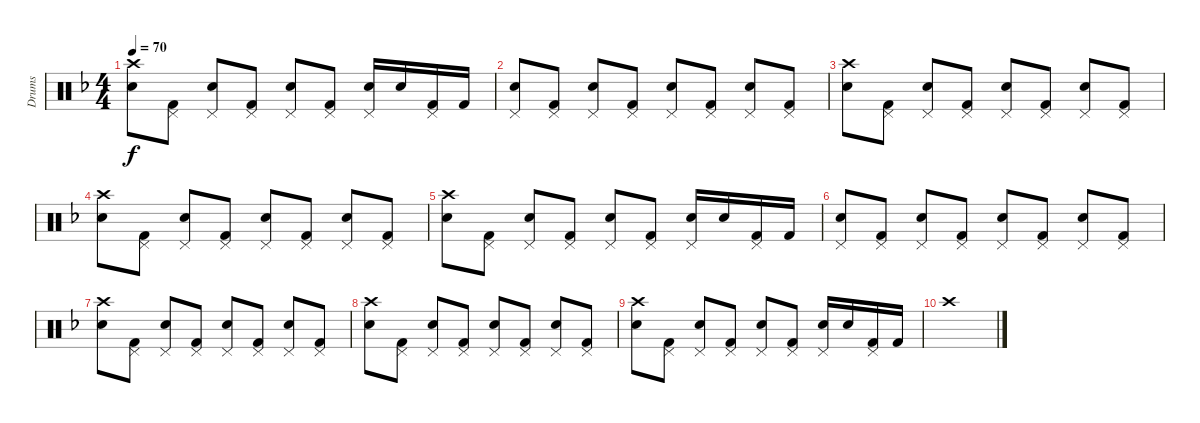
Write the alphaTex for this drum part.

\track ("Drums" "Drums") {instrument percussion}
\staff {score}
\articulation defaults
\ts (4 4)
\tempo 70
\clef neutral
\ks dminor
("Crash high (hit)" "Snare (hit) 2").8{dy f} ("Pedal Hi-Hat (hit)" "Kick (hit) 2").8 ("Pedal Hi-Hat (hit)" "Snare (hit) 2").8 ("Pedal Hi-Hat (hit)" "Kick (hit) 2").8 ("Pedal Hi-Hat (hit)" "Snare (hit) 2").8 ("Pedal Hi-Hat (hit)" "Kick (hit) 2").8 ("Pedal Hi-Hat (hit)" "Snare (hit) 2").16 "Snare (hit) 2".16 ("Pedal Hi-Hat (hit)" "Kick (hit) 2").16 "Kick (hit) 2".16 |
("Pedal Hi-Hat (hit)" "Snare (hit) 2").8 ("Pedal Hi-Hat (hit)" "Kick (hit) 2").8 ("Pedal Hi-Hat (hit)" "Snare (hit) 2").8 ("Pedal Hi-Hat (hit)" "Kick (hit) 2").8 ("Pedal Hi-Hat (hit)" "Snare (hit) 2").8 ("Pedal Hi-Hat (hit)" "Kick (hit) 2").8 ("Pedal Hi-Hat (hit)" "Snare (hit) 2").8 ("Pedal Hi-Hat (hit)" "Kick (hit) 2").8 |
("Crash high (hit)" "Snare (hit) 2").8 ("Pedal Hi-Hat (hit)" "Kick (hit) 2").8 ("Pedal Hi-Hat (hit)" "Snare (hit) 2").8 ("Pedal Hi-Hat (hit)" "Kick (hit) 2").8 ("Pedal Hi-Hat (hit)" "Snare (hit) 2").8 ("Pedal Hi-Hat (hit)" "Kick (hit) 2").8 ("Pedal Hi-Hat (hit)" "Snare (hit) 2").8 ("Pedal Hi-Hat (hit)" "Kick (hit) 2").8 |
("Crash high (hit)" "Snare (hit) 2").8 ("Pedal Hi-Hat (hit)" "Kick (hit) 2").8 ("Pedal Hi-Hat (hit)" "Snare (hit) 2").8 ("Pedal Hi-Hat (hit)" "Kick (hit) 2").8 ("Pedal Hi-Hat (hit)" "Snare (hit) 2").8 ("Pedal Hi-Hat (hit)" "Kick (hit) 2").8 ("Pedal Hi-Hat (hit)" "Snare (hit) 2").8 ("Pedal Hi-Hat (hit)" "Kick (hit) 2").8 |
("Crash high (hit)" "Snare (hit) 2").8 ("Pedal Hi-Hat (hit)" "Kick (hit) 2").8 ("Pedal Hi-Hat (hit)" "Snare (hit) 2").8 ("Pedal Hi-Hat (hit)" "Kick (hit) 2").8 ("Pedal Hi-Hat (hit)" "Snare (hit) 2").8 ("Pedal Hi-Hat (hit)" "Kick (hit) 2").8 ("Pedal Hi-Hat (hit)" "Snare (hit) 2").16 "Snare (hit) 2".16 ("Pedal Hi-Hat (hit)" "Kick (hit) 2").16 "Kick (hit) 2".16 |
("Pedal Hi-Hat (hit)" "Snare (hit) 2").8 ("Pedal Hi-Hat (hit)" "Kick (hit) 2").8 ("Pedal Hi-Hat (hit)" "Snare (hit) 2").8 ("Pedal Hi-Hat (hit)" "Kick (hit) 2").8 ("Pedal Hi-Hat (hit)" "Snare (hit) 2").8 ("Pedal Hi-Hat (hit)" "Kick (hit) 2").8 ("Pedal Hi-Hat (hit)" "Snare (hit) 2").8 ("Pedal Hi-Hat (hit)" "Kick (hit) 2").8 |
("Crash high (hit)" "Snare (hit) 2").8 ("Pedal Hi-Hat (hit)" "Kick (hit) 2").8 ("Pedal Hi-Hat (hit)" "Snare (hit) 2").8 ("Pedal Hi-Hat (hit)" "Kick (hit) 2").8 ("Pedal Hi-Hat (hit)" "Snare (hit) 2").8 ("Pedal Hi-Hat (hit)" "Kick (hit) 2").8 ("Pedal Hi-Hat (hit)" "Snare (hit) 2").8 ("Pedal Hi-Hat (hit)" "Kick (hit) 2").8 |
("Crash high (hit)" "Snare (hit) 2").8 ("Pedal Hi-Hat (hit)" "Kick (hit) 2").8 ("Pedal Hi-Hat (hit)" "Snare (hit) 2").8 ("Pedal Hi-Hat (hit)" "Kick (hit) 2").8 ("Pedal Hi-Hat (hit)" "Snare (hit) 2").8 ("Pedal Hi-Hat (hit)" "Kick (hit) 2").8 ("Pedal Hi-Hat (hit)" "Snare (hit) 2").8 ("Pedal Hi-Hat (hit)" "Kick (hit) 2").8 |
("Crash high (hit)" "Snare (hit) 2").8 ("Pedal Hi-Hat (hit)" "Kick (hit) 2").8 ("Pedal Hi-Hat (hit)" "Snare (hit) 2").8 ("Pedal Hi-Hat (hit)" "Kick (hit) 2").8 ("Pedal Hi-Hat (hit)" "Snare (hit) 2").8 ("Pedal Hi-Hat (hit)" "Kick (hit) 2").8 ("Pedal Hi-Hat (hit)" "Snare (hit) 2").16 "Snare (hit) 2".16 ("Pedal Hi-Hat (hit)" "Kick (hit) 2").16 "Kick (hit) 2".16 |
"Crash high (hit)".1
